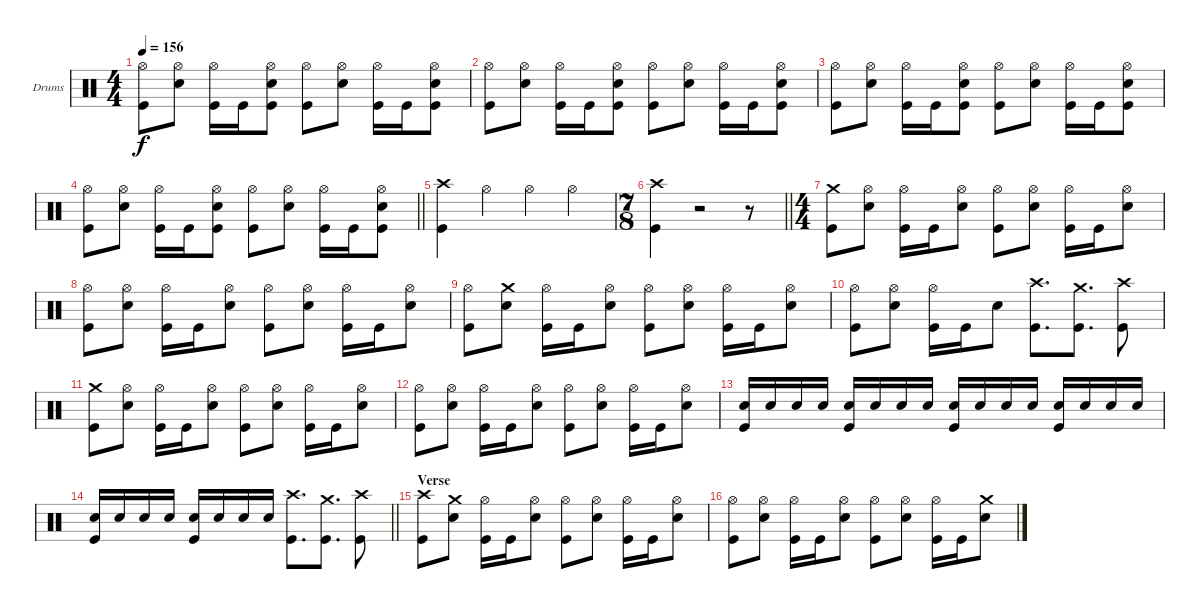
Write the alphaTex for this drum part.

\bracketExtendMode groupsimilarinstruments
\firstSystemTrackNameOrientation horizontal
\otherSystemsTrackNameOrientation horizontal
\track ("Drums" "Drums") {instrument percussion}
\staff {score}
\articulation defaults
\ts (4 4)
\tempo 156
\clef neutral
\ks c
("Hi-Hat (open)" "Kick (hit)").8{dy f} ("Hi-Hat (open)" "Snare (hit) 2").8 ("Hi-Hat (open)" "Kick (hit)").16 "Kick (hit)".16 ("Hi-Hat (open)" "Snare (hit) 2" "Kick (hit)").8 ("Hi-Hat (open)" "Kick (hit)").8 ("Hi-Hat (open)" "Snare (hit) 2").8 ("Hi-Hat (open)" "Kick (hit)").16 "Kick (hit)".16 ("Hi-Hat (open)" "Snare (hit) 2" "Kick (hit)").8 |
("Hi-Hat (open)" "Kick (hit)").8 ("Hi-Hat (open)" "Snare (hit) 2").8 ("Hi-Hat (open)" "Kick (hit)").16 "Kick (hit)".16 ("Hi-Hat (open)" "Snare (hit) 2" "Kick (hit)").8 ("Hi-Hat (open)" "Kick (hit)").8 ("Hi-Hat (open)" "Snare (hit) 2").8 ("Hi-Hat (open)" "Kick (hit)").16 "Kick (hit)".16 ("Hi-Hat (open)" "Snare (hit) 2" "Kick (hit)").8 |
("Hi-Hat (open)" "Kick (hit)").8 ("Hi-Hat (open)" "Snare (hit) 2").8 ("Hi-Hat (open)" "Kick (hit)").16 "Kick (hit)".16 ("Hi-Hat (open)" "Snare (hit) 2" "Kick (hit)").8 ("Hi-Hat (open)" "Kick (hit)").8 ("Hi-Hat (open)" "Snare (hit) 2").8 ("Hi-Hat (open)" "Kick (hit)").16 "Kick (hit)".16 ("Hi-Hat (open)" "Snare (hit) 2" "Kick (hit)").8 |
\barLineRight lightlight
("Hi-Hat (open)" "Kick (hit)").8 ("Hi-Hat (open)" "Snare (hit) 2").8 ("Hi-Hat (open)" "Kick (hit)").16 "Kick (hit)".16 ("Hi-Hat (open)" "Snare (hit) 2" "Kick (hit)").8 ("Hi-Hat (open)" "Kick (hit)").8 ("Hi-Hat (open)" "Snare (hit) 2").8 ("Hi-Hat (open)" "Kick (hit)").16 "Kick (hit)".16 ("Hi-Hat (open)" "Snare (hit) 2" "Kick (hit)").8 |
("Kick (hit)" "Crash high (hit)").4 "Hi-Hat (open)".4 "Hi-Hat (open)".4 "Hi-Hat (open)".4 |
\ts (7 8)
\barLineRight lightlight
("Kick (hit)" "Crash high (hit)").4 r.2 r.8 |
\ts (4 4)
("Crash medium (hit)" "Kick (hit)").8 ("Hi-Hat (open)" "Snare (hit) 2").8 ("Hi-Hat (open)" "Kick (hit)").16 "Kick (hit)".16 ("Hi-Hat (open)" "Snare (hit) 2").8 ("Hi-Hat (open)" "Kick (hit)").8 ("Hi-Hat (open)" "Snare (hit) 2").8 ("Hi-Hat (open)" "Kick (hit)").16 "Kick (hit)".16 ("Hi-Hat (open)" "Snare (hit) 2").8 |
("Hi-Hat (open)" "Kick (hit)").8 ("Hi-Hat (open)" "Snare (hit) 2").8 ("Hi-Hat (open)" "Kick (hit)").16 "Kick (hit)".16 ("Hi-Hat (open)" "Snare (hit) 2").8 ("Hi-Hat (open)" "Kick (hit)").8 ("Hi-Hat (open)" "Snare (hit) 2").8 ("Hi-Hat (open)" "Kick (hit)").16 "Kick (hit)".16 ("Hi-Hat (open)" "Snare (hit) 2").8 |
("Hi-Hat (open)" "Kick (hit)").8 ("Crash medium (hit)" "Snare (hit) 2").8 ("Hi-Hat (open)" "Kick (hit)").16 "Kick (hit)".16 ("Hi-Hat (open)" "Snare (hit) 2").8 ("Hi-Hat (open)" "Kick (hit)").8 ("Hi-Hat (open)" "Snare (hit) 2").8 ("Hi-Hat (open)" "Kick (hit)").16 "Kick (hit)".16 ("Hi-Hat (open)" "Snare (hit) 2").8 |
("Hi-Hat (open)" "Kick (hit)").8 ("Hi-Hat (open)" "Snare (hit) 2").8 ("Hi-Hat (open)" "Kick (hit)").16 "Kick (hit)".16 "Snare (hit) 2".8 ("Crash high (hit)" "Kick (hit)").8{d} ("Crash medium (hit)" "Kick (hit)").8{d} ("Crash high (hit)" "Kick (hit)").8 |
("Crash medium (hit)" "Kick (hit)").8 ("Hi-Hat (open)" "Snare (hit) 2").8 ("Hi-Hat (open)" "Kick (hit)").16 "Kick (hit)".16 ("Hi-Hat (open)" "Snare (hit) 2").8 ("Hi-Hat (open)" "Kick (hit)").8 ("Hi-Hat (open)" "Snare (hit) 2").8 ("Hi-Hat (open)" "Kick (hit)").16 "Kick (hit)".16 ("Hi-Hat (open)" "Snare (hit) 2").8 |
("Hi-Hat (open)" "Kick (hit)").8 ("Hi-Hat (open)" "Snare (hit) 2").8 ("Hi-Hat (open)" "Kick (hit)").16 "Kick (hit)".16 ("Hi-Hat (open)" "Snare (hit) 2").8 ("Hi-Hat (open)" "Kick (hit)").8 ("Hi-Hat (open)" "Snare (hit) 2").8 ("Hi-Hat (open)" "Kick (hit)").16 "Kick (hit)".16 ("Hi-Hat (open)" "Snare (hit) 2").8 |
("Snare (hit) 2" "Kick (hit)").16 "Snare (hit) 2".16 "Snare (hit) 2".16 "Snare (hit) 2".16 ("Snare (hit) 2" "Kick (hit)").16 "Snare (hit) 2".16 "Snare (hit) 2".16 "Snare (hit) 2".16 ("Snare (hit) 2" "Kick (hit)").16 "Snare (hit) 2".16 "Snare (hit) 2".16 "Snare (hit) 2".16 ("Snare (hit) 2" "Kick (hit)").16 "Snare (hit) 2".16 "Snare (hit) 2".16 "Snare (hit) 2".16 |
\barLineRight lightlight
("Snare (hit) 2" "Kick (hit)").16 "Snare (hit) 2".16 "Snare (hit) 2".16 "Snare (hit) 2".16 ("Snare (hit) 2" "Kick (hit)").16 "Snare (hit) 2".16 "Snare (hit) 2".16 "Snare (hit) 2".16 ("Crash high (hit)" "Kick (hit)").8{d} ("Crash medium (hit)" "Kick (hit)").8{d} ("Crash high (hit)" "Kick (hit)").8 |
\section ("" "Verse")
("Crash high (hit)" "Kick (hit)").8 ("Crash medium (hit)" "Snare (hit) 2").8 ("Hi-Hat (open)" "Kick (hit)").16 "Kick (hit)".16 ("Hi-Hat (open)" "Snare (hit) 2").8 ("Hi-Hat (open)" "Kick (hit)").8 ("Hi-Hat (open)" "Snare (hit) 2").8 ("Hi-Hat (open)" "Kick (hit)").16 "Kick (hit)".16 ("Hi-Hat (open)" "Snare (hit) 2").8 |
("Hi-Hat (open)" "Kick (hit)").8 ("Hi-Hat (open)" "Snare (hit) 2").8 ("Hi-Hat (open)" "Kick (hit)").16 "Kick (hit)".16 ("Hi-Hat (open)" "Snare (hit) 2").8 ("Hi-Hat (open)" "Kick (hit)").8 ("Hi-Hat (open)" "Snare (hit) 2").8 ("Hi-Hat (open)" "Kick (hit)").16 "Kick (hit)".16 ("Crash medium (hit)" "Snare (hit) 2").8
